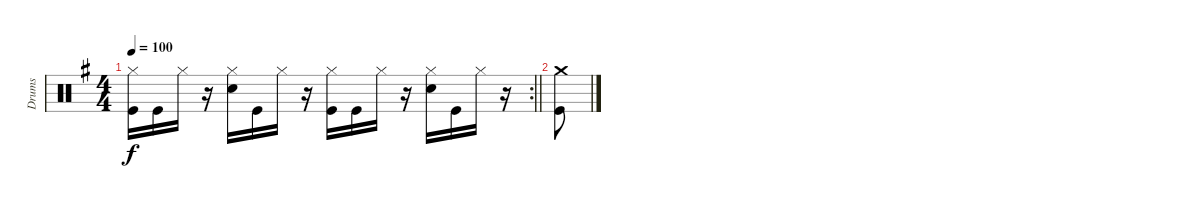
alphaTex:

\track ("Drums" "Drums") {instrument percussion}
\staff {score}
\articulation defaults
\rc 2
\ts (4 4)
\tempo 100
\clef neutral
\barLineRight lightlight
\ks g
("Hi-Hat (closed)" "Kick (hit)").16{dy f} "Kick (hit)".16 "Hi-Hat (closed)".16 r.16 ("Hi-Hat (closed)" "Electric Snare (hit)").16 "Kick (hit)".16 "Hi-Hat (closed)".16 r.16 ("Hi-Hat (closed)" "Kick (hit)").16 "Kick (hit)".16 "Hi-Hat (closed)".16 r.16 ("Hi-Hat (closed)" "Electric Snare (hit)").16 "Kick (hit)".16 "Hi-Hat (closed)".16 r.16 |
("Crash medium (hit)" "Kick (hit)").8
